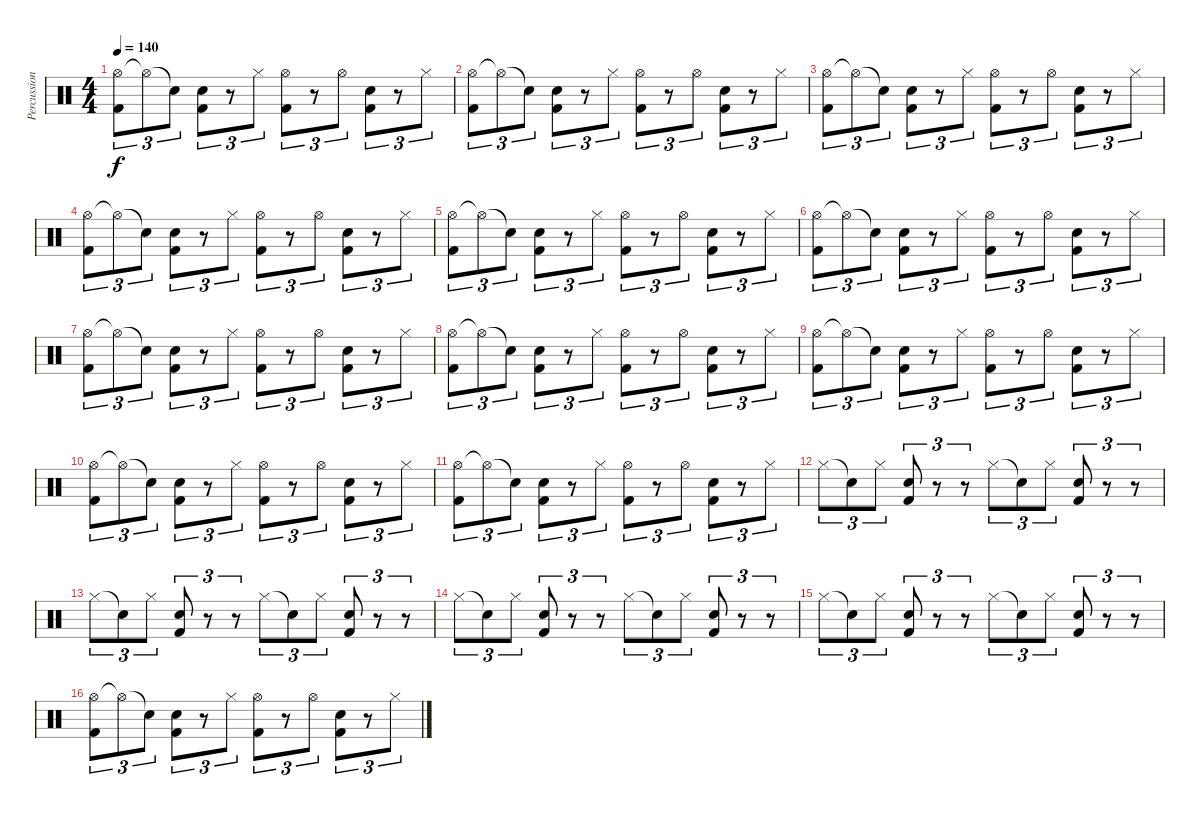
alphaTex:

\track ("Percussion" "Percussion") {instrument percussion}
\staff {score}
\articulation defaults
\ts (4 4)
\tempo 140
\clef neutral
\ks c
("Hi-Hat (open)" "Kick (hit) 2").8{tu (3 2) dy f} "Hi-Hat (open)"{t}.8{tu (3 2)} "Snare (hit)"{t}.8{tu (3 2)} ("Snare (hit) 2" "Kick (hit) 2").8{tu (3 2)} r.8{tu (3 2)} "Hi-Hat (closed)".8{tu (3 2)} ("Hi-Hat (open)" "Kick (hit) 2").8{tu (3 2)} r.8{tu (3 2)} "Hi-Hat (open)".8{tu (3 2)} ("Snare (hit) 2" "Kick (hit) 2").8{tu (3 2)} r.8{tu (3 2)} "Hi-Hat (closed)".8{tu (3 2)} |
("Hi-Hat (open)" "Kick (hit) 2").8{tu (3 2)} "Hi-Hat (open)"{t}.8{tu (3 2)} "Snare (hit)"{t}.8{tu (3 2)} ("Snare (hit) 2" "Kick (hit) 2").8{tu (3 2)} r.8{tu (3 2)} "Hi-Hat (closed)".8{tu (3 2)} ("Hi-Hat (open)" "Kick (hit) 2").8{tu (3 2)} r.8{tu (3 2)} "Hi-Hat (open)".8{tu (3 2)} ("Snare (hit) 2" "Kick (hit) 2").8{tu (3 2)} r.8{tu (3 2)} "Hi-Hat (closed)".8{tu (3 2)} |
("Hi-Hat (open)" "Kick (hit) 2").8{tu (3 2)} "Hi-Hat (open)"{t}.8{tu (3 2)} "Snare (hit)"{t}.8{tu (3 2)} ("Snare (hit) 2" "Kick (hit) 2").8{tu (3 2)} r.8{tu (3 2)} "Hi-Hat (closed)".8{tu (3 2)} ("Hi-Hat (open)" "Kick (hit) 2").8{tu (3 2)} r.8{tu (3 2)} "Hi-Hat (open)".8{tu (3 2)} ("Snare (hit) 2" "Kick (hit) 2").8{tu (3 2)} r.8{tu (3 2)} "Hi-Hat (closed)".8{tu (3 2)} |
("Hi-Hat (open)" "Kick (hit) 2").8{tu (3 2)} "Hi-Hat (open)"{t}.8{tu (3 2)} "Snare (hit)"{t}.8{tu (3 2)} ("Snare (hit) 2" "Kick (hit) 2").8{tu (3 2)} r.8{tu (3 2)} "Hi-Hat (closed)".8{tu (3 2)} ("Hi-Hat (open)" "Kick (hit) 2").8{tu (3 2)} r.8{tu (3 2)} "Hi-Hat (open)".8{tu (3 2)} ("Snare (hit) 2" "Kick (hit) 2").8{tu (3 2)} r.8{tu (3 2)} "Hi-Hat (closed)".8{tu (3 2)} |
("Hi-Hat (open)" "Kick (hit) 2").8{tu (3 2)} "Hi-Hat (open)"{t}.8{tu (3 2)} "Snare (hit)"{t}.8{tu (3 2)} ("Snare (hit) 2" "Kick (hit) 2").8{tu (3 2)} r.8{tu (3 2)} "Hi-Hat (closed)".8{tu (3 2)} ("Hi-Hat (open)" "Kick (hit) 2").8{tu (3 2)} r.8{tu (3 2)} "Hi-Hat (open)".8{tu (3 2)} ("Snare (hit) 2" "Kick (hit) 2").8{tu (3 2)} r.8{tu (3 2)} "Hi-Hat (closed)".8{tu (3 2)} |
("Hi-Hat (open)" "Kick (hit) 2").8{tu (3 2)} "Hi-Hat (open)"{t}.8{tu (3 2)} "Snare (hit)"{t}.8{tu (3 2)} ("Snare (hit) 2" "Kick (hit) 2").8{tu (3 2)} r.8{tu (3 2)} "Hi-Hat (closed)".8{tu (3 2)} ("Hi-Hat (open)" "Kick (hit) 2").8{tu (3 2)} r.8{tu (3 2)} "Hi-Hat (open)".8{tu (3 2)} ("Snare (hit) 2" "Kick (hit) 2").8{tu (3 2)} r.8{tu (3 2)} "Hi-Hat (closed)".8{tu (3 2)} |
("Hi-Hat (open)" "Kick (hit) 2").8{tu (3 2)} "Hi-Hat (open)"{t}.8{tu (3 2)} "Snare (hit)"{t}.8{tu (3 2)} ("Snare (hit) 2" "Kick (hit) 2").8{tu (3 2)} r.8{tu (3 2)} "Hi-Hat (closed)".8{tu (3 2)} ("Hi-Hat (open)" "Kick (hit) 2").8{tu (3 2)} r.8{tu (3 2)} "Hi-Hat (open)".8{tu (3 2)} ("Snare (hit) 2" "Kick (hit) 2").8{tu (3 2)} r.8{tu (3 2)} "Hi-Hat (closed)".8{tu (3 2)} |
("Hi-Hat (open)" "Kick (hit) 2").8{tu (3 2)} "Hi-Hat (open)"{t}.8{tu (3 2)} "Snare (hit)"{t}.8{tu (3 2)} ("Snare (hit) 2" "Kick (hit) 2").8{tu (3 2)} r.8{tu (3 2)} "Hi-Hat (closed)".8{tu (3 2)} ("Hi-Hat (open)" "Kick (hit) 2").8{tu (3 2)} r.8{tu (3 2)} "Hi-Hat (open)".8{tu (3 2)} ("Snare (hit) 2" "Kick (hit) 2").8{tu (3 2)} r.8{tu (3 2)} "Hi-Hat (closed)".8{tu (3 2)} |
("Hi-Hat (open)" "Kick (hit) 2").8{tu (3 2)} "Hi-Hat (open)"{t}.8{tu (3 2)} "Snare (hit)"{t}.8{tu (3 2)} ("Snare (hit) 2" "Kick (hit) 2").8{tu (3 2)} r.8{tu (3 2)} "Hi-Hat (closed)".8{tu (3 2)} ("Hi-Hat (open)" "Kick (hit) 2").8{tu (3 2)} r.8{tu (3 2)} "Hi-Hat (open)".8{tu (3 2)} ("Snare (hit) 2" "Kick (hit) 2").8{tu (3 2)} r.8{tu (3 2)} "Hi-Hat (closed)".8{tu (3 2)} |
("Hi-Hat (open)" "Kick (hit) 2").8{tu (3 2)} "Hi-Hat (open)"{t}.8{tu (3 2)} "Snare (hit)"{t}.8{tu (3 2)} ("Snare (hit) 2" "Kick (hit) 2").8{tu (3 2)} r.8{tu (3 2)} "Hi-Hat (closed)".8{tu (3 2)} ("Hi-Hat (open)" "Kick (hit) 2").8{tu (3 2)} r.8{tu (3 2)} "Hi-Hat (open)".8{tu (3 2)} ("Snare (hit) 2" "Kick (hit) 2").8{tu (3 2)} r.8{tu (3 2)} "Hi-Hat (closed)".8{tu (3 2)} |
("Hi-Hat (open)" "Kick (hit) 2").8{tu (3 2)} "Hi-Hat (open)"{t}.8{tu (3 2)} "Snare (hit)"{t}.8{tu (3 2)} ("Snare (hit) 2" "Kick (hit) 2").8{tu (3 2)} r.8{tu (3 2)} "Hi-Hat (closed)".8{tu (3 2)} ("Hi-Hat (open)" "Kick (hit) 2").8{tu (3 2)} r.8{tu (3 2)} "Hi-Hat (open)".8{tu (3 2)} ("Snare (hit) 2" "Kick (hit) 2").8{tu (3 2)} r.8{tu (3 2)} "Hi-Hat (closed)".8{tu (3 2)} |
"Hi-Hat (closed)".8{tu (3 2)} "Snare (hit)"{t}.8{tu (3 2)} "Hi-Hat (closed)".8{tu (3 2)} ("Snare (hit) 2" "Kick (hit) 2").8{tu (3 2)} r.8{tu (3 2)} r.8{tu (3 2)} "Hi-Hat (closed)".8{tu (3 2)} "Snare (hit)"{t}.8{tu (3 2)} "Hi-Hat (closed)".8{tu (3 2)} ("Snare (hit) 2" "Kick (hit) 2").8{tu (3 2)} r.8{tu (3 2)} r.8{tu (3 2)} |
"Hi-Hat (closed)".8{tu (3 2)} "Snare (hit)"{t}.8{tu (3 2)} "Hi-Hat (closed)".8{tu (3 2)} ("Snare (hit) 2" "Kick (hit) 2").8{tu (3 2)} r.8{tu (3 2)} r.8{tu (3 2)} "Hi-Hat (closed)".8{tu (3 2)} "Snare (hit)"{t}.8{tu (3 2)} "Hi-Hat (closed)".8{tu (3 2)} ("Snare (hit) 2" "Kick (hit) 2").8{tu (3 2)} r.8{tu (3 2)} r.8{tu (3 2)} |
"Hi-Hat (closed)".8{tu (3 2)} "Snare (hit)"{t}.8{tu (3 2)} "Hi-Hat (closed)".8{tu (3 2)} ("Snare (hit) 2" "Kick (hit) 2").8{tu (3 2)} r.8{tu (3 2)} r.8{tu (3 2)} "Hi-Hat (closed)".8{tu (3 2)} "Snare (hit)"{t}.8{tu (3 2)} "Hi-Hat (closed)".8{tu (3 2)} ("Snare (hit) 2" "Kick (hit) 2").8{tu (3 2)} r.8{tu (3 2)} r.8{tu (3 2)} |
"Hi-Hat (closed)".8{tu (3 2)} "Snare (hit)"{t}.8{tu (3 2)} "Hi-Hat (closed)".8{tu (3 2)} ("Snare (hit) 2" "Kick (hit) 2").8{tu (3 2)} r.8{tu (3 2)} r.8{tu (3 2)} "Hi-Hat (closed)".8{tu (3 2)} "Snare (hit)"{t}.8{tu (3 2)} "Hi-Hat (closed)".8{tu (3 2)} ("Snare (hit) 2" "Kick (hit) 2").8{tu (3 2)} r.8{tu (3 2)} r.8{tu (3 2)} |
("Hi-Hat (open)" "Kick (hit) 2").8{tu (3 2)} "Hi-Hat (open)"{t}.8{tu (3 2)} "Snare (hit)"{t}.8{tu (3 2)} ("Snare (hit) 2" "Kick (hit) 2").8{tu (3 2)} r.8{tu (3 2)} "Hi-Hat (closed)".8{tu (3 2)} ("Hi-Hat (open)" "Kick (hit) 2").8{tu (3 2)} r.8{tu (3 2)} "Hi-Hat (open)".8{tu (3 2)} ("Snare (hit) 2" "Kick (hit) 2").8{tu (3 2)} r.8{tu (3 2)} "Hi-Hat (closed)".8{tu (3 2)}
